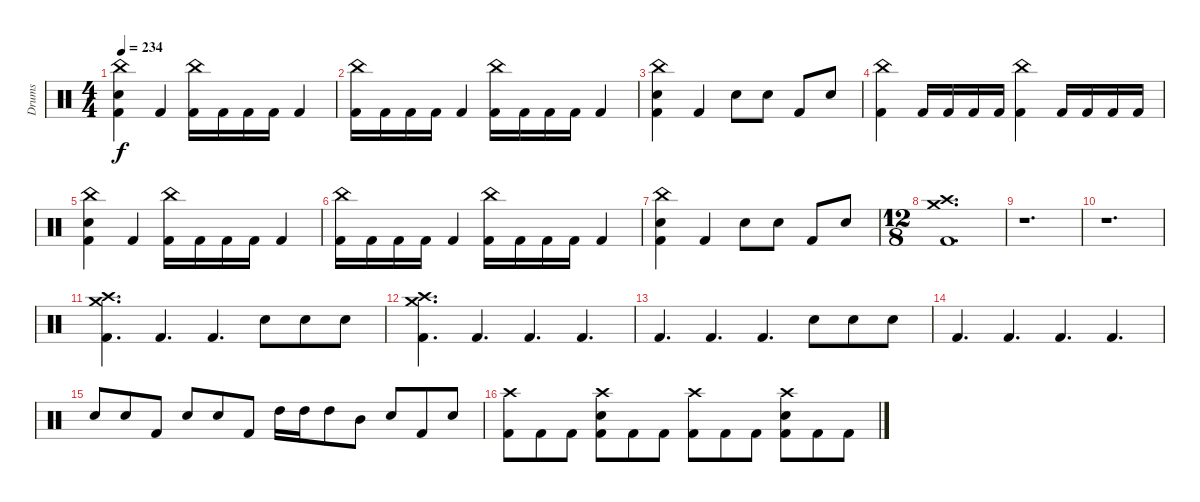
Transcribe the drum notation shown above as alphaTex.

\track ("Drums" "Drums") {instrument percussion}
\staff {score}
\articulation defaults
\ts (4 4)
\tempo 234
\clef neutral
\ks c
("China (hit)" "Electric Snare (hit)" "Kick (hit) 2").4{dy f} "Kick (hit) 2".4 ("China (hit)" "Kick (hit) 2").16 "Kick (hit) 2".16 "Kick (hit) 2".16 "Kick (hit) 2".16 "Kick (hit) 2".4 |
("China (hit)" "Kick (hit) 2").16 "Kick (hit) 2".16 "Kick (hit) 2".16 "Kick (hit) 2".16 "Kick (hit) 2".4 ("China (hit)" "Kick (hit) 2").16 "Kick (hit) 2".16 "Kick (hit) 2".16 "Kick (hit) 2".16 "Kick (hit) 2".4 |
("China (hit)" "Electric Snare (hit)" "Kick (hit) 2").4 "Kick (hit) 2".4 "Electric Snare (hit)".8 "Electric Snare (hit)".8 "Kick (hit) 2".8 "Electric Snare (hit)".8 |
("China (hit)" "Kick (hit) 2").4 "Kick (hit) 2".16 "Kick (hit) 2".16 "Kick (hit) 2".16 "Kick (hit) 2".16 ("China (hit)" "Kick (hit) 2").4 "Kick (hit) 2".16 "Kick (hit) 2".16 "Kick (hit) 2".16 "Kick (hit) 2".16 |
("China (hit)" "Electric Snare (hit)" "Kick (hit) 2").4 "Kick (hit) 2".4 ("China (hit)" "Kick (hit) 2").16 "Kick (hit) 2".16 "Kick (hit) 2".16 "Kick (hit) 2".16 "Kick (hit) 2".4 |
("China (hit)" "Kick (hit) 2").16 "Kick (hit) 2".16 "Kick (hit) 2".16 "Kick (hit) 2".16 "Kick (hit) 2".4 ("China (hit)" "Kick (hit) 2").16 "Kick (hit) 2".16 "Kick (hit) 2".16 "Kick (hit) 2".16 "Kick (hit) 2".4 |
("China (hit)" "Electric Snare (hit)" "Kick (hit) 2").4 "Kick (hit) 2".4 "Electric Snare (hit)".8 "Electric Snare (hit)".8 "Kick (hit) 2".8 "Electric Snare (hit)".8 |
\ts (12 8)
("Crash high (hit)" "Crash medium (hit)" "Kick (hit) 2").1{d} |
r.1{d} |
r.1{d} |
("Crash high (hit)" "Crash medium (hit)" "Kick (hit) 2").4{d} "Kick (hit) 2".4{d} "Kick (hit) 2".4{d} "Electric Snare (hit)".8 "Electric Snare (hit)".8 "Electric Snare (hit)".8 |
("Crash high (hit)" "Crash medium (hit)" "Kick (hit) 2").4{d} "Kick (hit) 2".4{d} "Kick (hit) 2".4{d} "Kick (hit) 2".4{d} |
"Kick (hit) 2".4{d} "Kick (hit) 2".4{d} "Kick (hit) 2".4{d} "Electric Snare (hit)".8 "Electric Snare (hit)".8 "Electric Snare (hit)".8 |
"Kick (hit) 2".4{d} "Kick (hit) 2".4{d} "Kick (hit) 2".4{d} "Kick (hit) 2".4{d} |
"Electric Snare (hit)".8 "Electric Snare (hit)".8 "Kick (hit) 2".8 "Electric Snare (hit)".8 "Electric Snare (hit)".8 "Kick (hit) 2".8 "High Tom (hit)".16 "High Tom (hit)".16 "High Tom (hit)".8 "Mid Tom (hit)".8 "Electric Snare (hit)".8 "Kick (hit) 2".8 "Electric Snare (hit)".8 |
("Crash high (hit)" "Kick (hit) 2").8 "Kick (hit) 2".8 "Kick (hit) 2".8 ("Crash high (hit)" "Electric Snare (hit)" "Kick (hit) 2").8 "Kick (hit) 2".8 "Kick (hit) 2".8 ("Crash high (hit)" "Kick (hit) 2").8 "Kick (hit) 2".8 "Kick (hit) 2".8 ("Crash high (hit)" "Electric Snare (hit)" "Kick (hit) 2").8 "Kick (hit) 2".8 "Kick (hit) 2".8
